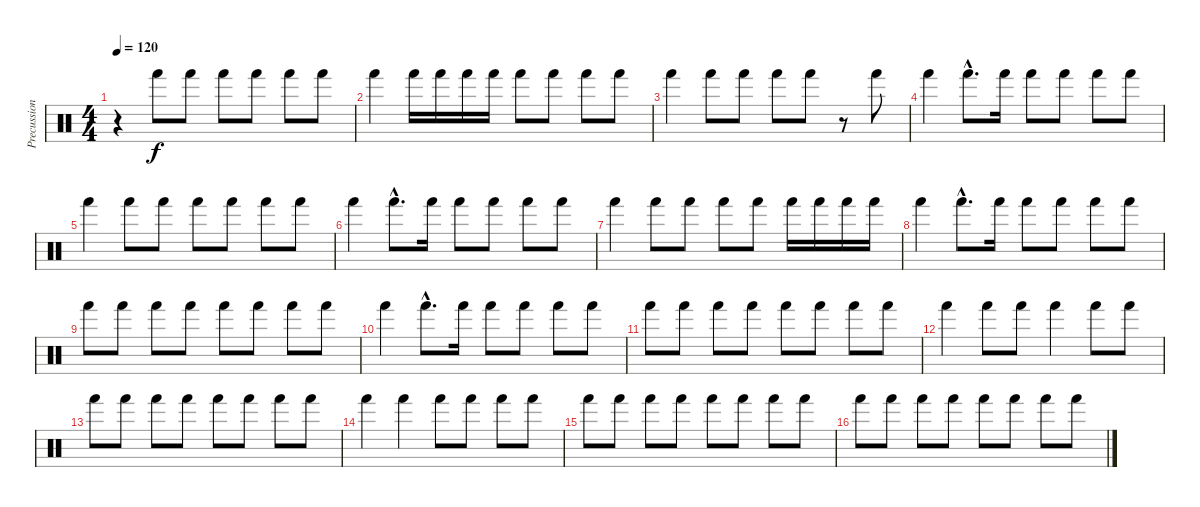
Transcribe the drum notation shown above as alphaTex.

\track ("Precussion" "Precussion") {instrument percussion}
\staff {score}
\articulation defaults
\ts (4 4)
\tempo 120
\clef neutral
\ks c
r.4{dy f} "Hand (hit)".8 "Hand (hit)".8 "Hand (hit)".8 "Hand (hit)".8 "Hand (hit)".8 "Hand (hit)".8 |
"Hand (hit)".4 "Hand (hit)".16 "Hand (hit)".16 "Hand (hit)".16 "Hand (hit)".16 "Hand (hit)".8 "Hand (hit)".8 "Hand (hit)".8 "Hand (hit)".8 |
"Hand (hit)".4 "Hand (hit)".8 "Hand (hit)".8 "Hand (hit)".8 "Hand (hit)".8 r.8 "Hand (hit)".8 |
"Hand (hit)".4 "Hand (hit)"{hac}.8{d} "Hand (hit)".16 "Hand (hit)".8 "Hand (hit)".8 "Hand (hit)".8 "Hand (hit)".8 |
"Hand (hit)".4 "Hand (hit)".8 "Hand (hit)".8 "Hand (hit)".8 "Hand (hit)".8 "Hand (hit)".8 "Hand (hit)".8 |
"Hand (hit)".4 "Hand (hit)"{hac}.8{d} "Hand (hit)".16 "Hand (hit)".8 "Hand (hit)".8 "Hand (hit)".8 "Hand (hit)".8 |
"Hand (hit)".4 "Hand (hit)".8 "Hand (hit)".8 "Hand (hit)".8 "Hand (hit)".8 "Hand (hit)".16 "Hand (hit)".16 "Hand (hit)".16 "Hand (hit)".16 |
"Hand (hit)".4 "Hand (hit)"{hac}.8{d} "Hand (hit)".16 "Hand (hit)".8 "Hand (hit)".8 "Hand (hit)".8 "Hand (hit)".8 |
"Hand (hit)".8 "Hand (hit)".8 "Hand (hit)".8 "Hand (hit)".8 "Hand (hit)".8 "Hand (hit)".8 "Hand (hit)".8 "Hand (hit)".8 |
"Hand (hit)".4 "Hand (hit)"{hac}.8{d} "Hand (hit)".16 "Hand (hit)".8 "Hand (hit)".8 "Hand (hit)".8 "Hand (hit)".8 |
"Hand (hit)".8 "Hand (hit)".8 "Hand (hit)".8 "Hand (hit)".8 "Hand (hit)".8 "Hand (hit)".8 "Hand (hit)".8 "Hand (hit)".8 |
"Hand (hit)".4 "Hand (hit)".8 "Hand (hit)".8 "Hand (hit)".4 "Hand (hit)".8 "Hand (hit)".8 |
"Hand (hit)".8 "Hand (hit)".8 "Hand (hit)".8 "Hand (hit)".8 "Hand (hit)".8 "Hand (hit)".8 "Hand (hit)".8 "Hand (hit)".8 |
"Hand (hit)".4 "Hand (hit)".4 "Hand (hit)".8 "Hand (hit)".8 "Hand (hit)".8 "Hand (hit)".8 |
"Hand (hit)".8 "Hand (hit)".8 "Hand (hit)".8 "Hand (hit)".8 "Hand (hit)".8 "Hand (hit)".8 "Hand (hit)".8 "Hand (hit)".8 |
"Hand (hit)".8 "Hand (hit)".8 "Hand (hit)".8 "Hand (hit)".8 "Hand (hit)".8 "Hand (hit)".8 "Hand (hit)".8 "Hand (hit)".8
